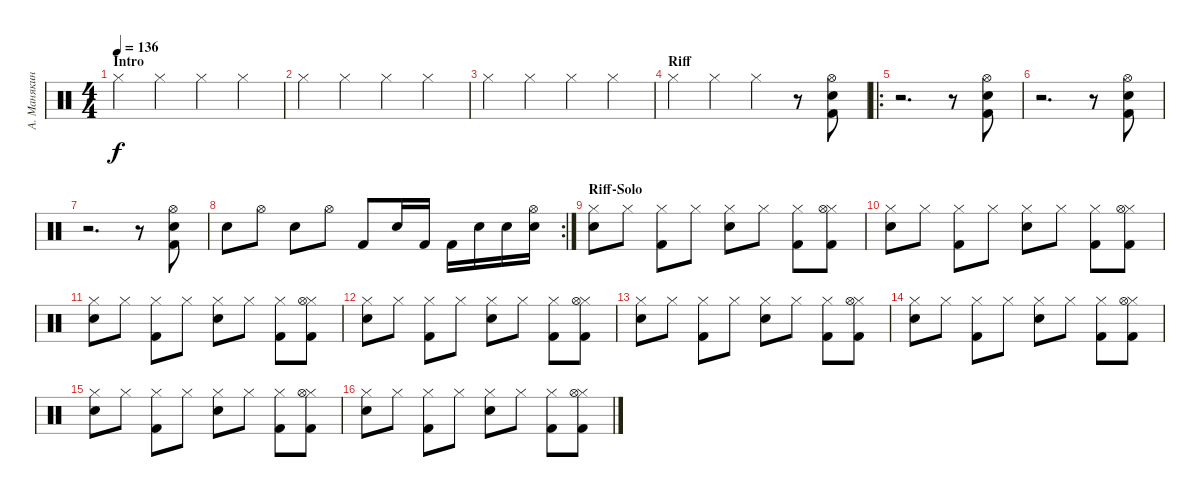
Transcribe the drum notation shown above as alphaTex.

\track ("А. Манякин" "А. Манякин") {instrument percussion}
\staff {score}
\articulation defaults
\ts (4 4)
\section ("" "Intro")
\tempo 136
\clef neutral
\ks c "Hi-Hat (closed)".4{dy f} "Hi-Hat (closed)".4 "Hi-Hat (closed)".4 "Hi-Hat (closed)".4
|
"Hi-Hat (closed)".4 "Hi-Hat (closed)".4 "Hi-Hat (closed)".4 "Hi-Hat (closed)".4 |
"Hi-Hat (closed)".4 "Hi-Hat (closed)".4 "Hi-Hat (closed)".4 "Hi-Hat (closed)".4 |
\section ("" "Riff")
"Hi-Hat (closed)".4 "Hi-Hat (closed)".4 "Hi-Hat (closed)".4 r.8 ("Snare (hit) 2" "Kick (hit) 2" "Hi-Hat (open)").8 |
\ro
r.2{d} r.8 ("Snare (hit) 2" "Kick (hit) 2" "Hi-Hat (open)").8 |
r.2{d} r.8 ("Snare (hit) 2" "Kick (hit) 2" "Hi-Hat (open)").8 |
r.2{d} r.8 ("Snare (hit) 2" "Kick (hit) 2" "Hi-Hat (open)").8 |
\rc 2 "Electric Snare (hit)".8 "Hi-Hat (open)".8 "Electric Snare (hit)".8 "Hi-Hat (open)".8 "Kick (hit) 2".8 "Electric Snare (hit)".16 "Kick (hit) 2".16 "Kick (hit) 2".16 "Electric Snare (hit)".16 "Electric Snare (hit)".16
("Electric Snare (hit)" "Hi-Hat (open)").16 |
\section ("" "Riff-Solo")
("Hi-Hat (closed)" "Snare (hit) 2").8 "Hi-Hat (closed)".8 ("Hi-Hat (closed)" "Kick (hit) 2").8 "Hi-Hat (closed)".8 ("Hi-Hat (closed)" "Snare (hit) 2").8 "Hi-Hat (closed)".8 ("Hi-Hat (closed)" "Kick (hit) 2").8 ("Hi-Hat (closed)" "Hi-Hat (open)" "Kick (hit) 2").8 |
("Hi-Hat (closed)" "Snare (hit) 2").8 "Hi-Hat (closed)".8 ("Hi-Hat (closed)" "Kick (hit) 2").8 "Hi-Hat (closed)".8 ("Hi-Hat (closed)" "Snare (hit) 2").8 "Hi-Hat (closed)".8 ("Hi-Hat (closed)" "Kick (hit) 2").8 ("Hi-Hat (closed)" "Kick (hit) 2" "Hi-Hat (open)").8 |
("Hi-Hat (closed)" "Snare (hit) 2").8 "Hi-Hat (closed)".8 ("Hi-Hat (closed)" "Kick (hit) 2").8 "Hi-Hat (closed)".8 ("Hi-Hat (closed)" "Snare (hit) 2").8 "Hi-Hat (closed)".8 ("Hi-Hat (closed)" "Kick (hit) 2").8 ("Hi-Hat (closed)" "Kick (hit) 2" "Hi-Hat (open)").8 |
("Hi-Hat (closed)" "Snare (hit) 2").8 "Hi-Hat (closed)".8 ("Hi-Hat (closed)" "Kick (hit) 2").8 "Hi-Hat (closed)".8 ("Hi-Hat (closed)" "Snare (hit) 2").8 "Hi-Hat (closed)".8 ("Hi-Hat (closed)" "Kick (hit) 2").8 ("Hi-Hat (closed)" "Hi-Hat (open)" "Kick (hit) 2").8 |
("Hi-Hat (closed)" "Snare (hit) 2").8 "Hi-Hat (closed)".8 ("Hi-Hat (closed)" "Kick (hit) 2").8 "Hi-Hat (closed)".8 ("Hi-Hat (closed)" "Snare (hit) 2").8 "Hi-Hat (closed)".8 ("Hi-Hat (closed)" "Kick (hit) 2").8 ("Hi-Hat (closed)" "Kick (hit) 2" "Hi-Hat (open)").8 |
("Hi-Hat (closed)" "Snare (hit) 2").8 "Hi-Hat (closed)".8 ("Hi-Hat (closed)" "Kick (hit) 2").8 "Hi-Hat (closed)".8 ("Hi-Hat (closed)" "Snare (hit) 2").8 "Hi-Hat (closed)".8 ("Hi-Hat (closed)" "Kick (hit) 2").8 ("Hi-Hat (closed)" "Kick (hit) 2" "Hi-Hat (open)").8 |
("Hi-Hat (closed)" "Snare (hit) 2").8 "Hi-Hat (closed)".8 ("Hi-Hat (closed)" "Kick (hit) 2").8 "Hi-Hat (closed)".8 ("Hi-Hat (closed)" "Snare (hit) 2").8 "Hi-Hat (closed)".8 ("Hi-Hat (closed)" "Kick (hit) 2").8 ("Hi-Hat (closed)" "Kick (hit) 2" "Hi-Hat (open)").8 |
("Hi-Hat (closed)" "Snare (hit) 2").8 "Hi-Hat (closed)".8 ("Hi-Hat (closed)" "Kick (hit) 2").8 "Hi-Hat (closed)".8 ("Hi-Hat (closed)" "Snare (hit) 2").8 "Hi-Hat (closed)".8 ("Hi-Hat (closed)" "Kick (hit) 2").8 ("Hi-Hat (closed)" "Kick (hit) 2" "Hi-Hat (open)").8
